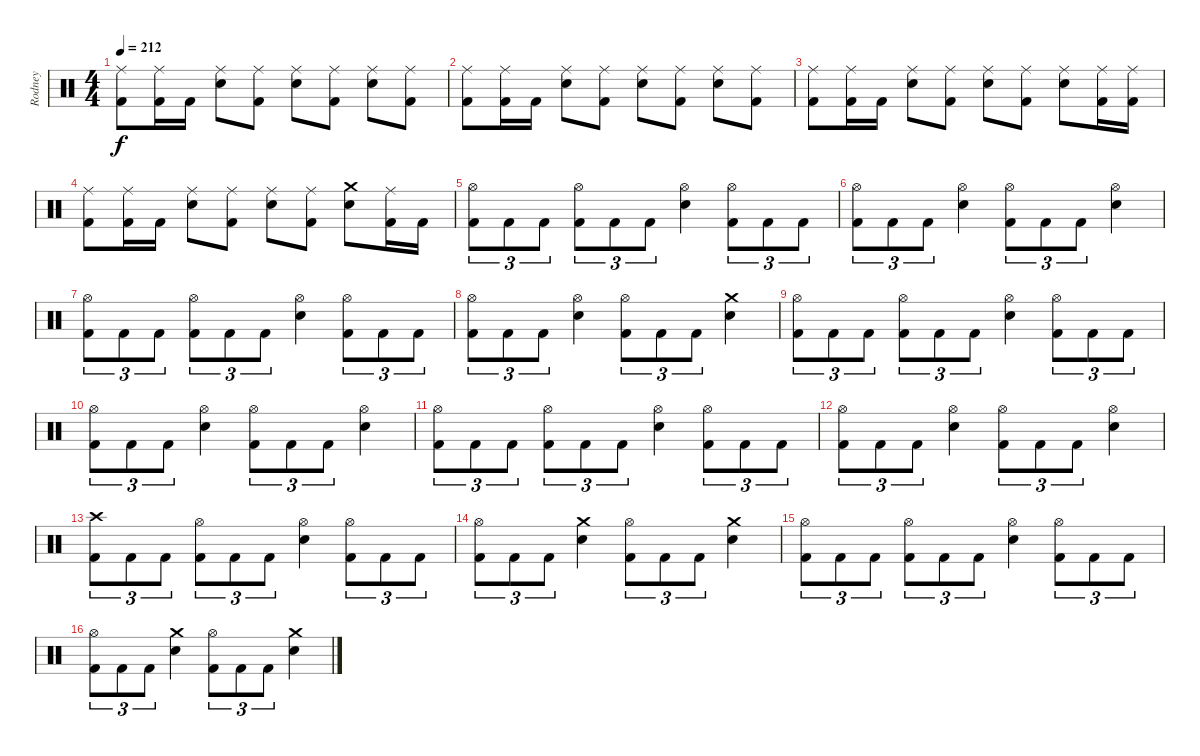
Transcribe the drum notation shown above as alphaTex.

\track ("Rodney" "Rodney") {instrument percussion}
\staff {score}
\articulation defaults
\ts (4 4)
\tempo 212
\clef neutral
\ks c
("Ride (middle)" "Kick (hit) 2").8{dy f} ("Ride (middle)" "Kick (hit) 2").16 "Kick (hit) 2".16 ("Ride (middle)" "Snare (hit) 2").8 ("Ride (middle)" "Kick (hit) 2").8 ("Ride (middle)" "Snare (hit) 2").8 ("Ride (middle)" "Kick (hit) 2").8 ("Ride (middle)" "Snare (hit) 2").8 ("Ride (middle)" "Kick (hit) 2").8 |
("Ride (middle)" "Kick (hit) 2").8 ("Ride (middle)" "Kick (hit) 2").16 "Kick (hit) 2".16 ("Ride (middle)" "Snare (hit) 2").8 ("Ride (middle)" "Kick (hit) 2").8 ("Ride (middle)" "Snare (hit) 2").8 ("Ride (middle)" "Kick (hit) 2").8 ("Ride (middle)" "Snare (hit) 2").8 ("Ride (middle)" "Kick (hit) 2").8 |
("Ride (middle)" "Kick (hit) 2").8 ("Ride (middle)" "Kick (hit) 2").16 "Kick (hit) 2".16 ("Ride (middle)" "Snare (hit) 2").8 ("Ride (middle)" "Kick (hit) 2").8 ("Ride (middle)" "Snare (hit) 2").8 ("Ride (middle)" "Kick (hit) 2").8 ("Ride (middle)" "Snare (hit) 2").8 ("Ride (middle)" "Kick (hit) 2").16 ("Ride (middle)" "Kick (hit) 2").16 |
("Ride (middle)" "Kick (hit) 2").8 ("Ride (middle)" "Kick (hit) 2").16 "Kick (hit) 2".16 ("Ride (middle)" "Snare (hit) 2").8 ("Ride (middle)" "Kick (hit) 2").8 ("Ride (middle)" "Snare (hit) 2").8 ("Ride (middle)" "Kick (hit) 2").8 ("Crash medium (hit)" "Snare (hit) 2").8 ("Ride (middle)" "Kick (hit) 2").16 "Kick (hit) 2".16 |
("Hi-Hat (open)" "Kick (hit) 2").8{tu (3 2)} "Kick (hit) 2".8{tu (3 2)} "Kick (hit) 2".8{tu (3 2)} ("Hi-Hat (open)" "Kick (hit) 2").8{tu (3 2)} "Kick (hit) 2".8{tu (3 2)} "Kick (hit) 2".8{tu (3 2)} ("Hi-Hat (open)" "Snare (hit) 2").4 ("Hi-Hat (open)" "Kick (hit) 2").8{tu (3 2)} "Kick (hit) 2".8{tu (3 2)} "Kick (hit) 2".8{tu (3 2)} |
("Hi-Hat (open)" "Kick (hit) 2").8{tu (3 2)} "Kick (hit) 2".8{tu (3 2)} "Kick (hit) 2".8{tu (3 2)} ("Hi-Hat (open)" "Snare (hit) 2").4 ("Hi-Hat (open)" "Kick (hit) 2").8{tu (3 2)} "Kick (hit) 2".8{tu (3 2)} "Kick (hit) 2".8{tu (3 2)} ("Hi-Hat (open)" "Snare (hit) 2").4 |
("Hi-Hat (open)" "Kick (hit) 2").8{tu (3 2)} "Kick (hit) 2".8{tu (3 2)} "Kick (hit) 2".8{tu (3 2)} ("Hi-Hat (open)" "Kick (hit) 2").8{tu (3 2)} "Kick (hit) 2".8{tu (3 2)} "Kick (hit) 2".8{tu (3 2)} ("Hi-Hat (open)" "Snare (hit) 2").4 ("Hi-Hat (open)" "Kick (hit) 2").8{tu (3 2)} "Kick (hit) 2".8{tu (3 2)} "Kick (hit) 2".8{tu (3 2)} |
("Hi-Hat (open)" "Kick (hit) 2").8{tu (3 2)} "Kick (hit) 2".8{tu (3 2)} "Kick (hit) 2".8{tu (3 2)} ("Hi-Hat (open)" "Snare (hit) 2").4 ("Hi-Hat (open)" "Kick (hit) 2").8{tu (3 2)} "Kick (hit) 2".8{tu (3 2)} "Kick (hit) 2".8{tu (3 2)} ("Crash medium (hit)" "Snare (hit) 2").4 |
("Hi-Hat (open)" "Kick (hit) 2").8{tu (3 2)} "Kick (hit) 2".8{tu (3 2)} "Kick (hit) 2".8{tu (3 2)} ("Hi-Hat (open)" "Kick (hit) 2").8{tu (3 2)} "Kick (hit) 2".8{tu (3 2)} "Kick (hit) 2".8{tu (3 2)} ("Hi-Hat (open)" "Snare (hit) 2").4 ("Hi-Hat (open)" "Kick (hit) 2").8{tu (3 2)} "Kick (hit) 2".8{tu (3 2)} "Kick (hit) 2".8{tu (3 2)} |
("Hi-Hat (open)" "Kick (hit) 2").8{tu (3 2)} "Kick (hit) 2".8{tu (3 2)} "Kick (hit) 2".8{tu (3 2)} ("Hi-Hat (open)" "Snare (hit) 2").4 ("Hi-Hat (open)" "Kick (hit) 2").8{tu (3 2)} "Kick (hit) 2".8{tu (3 2)} "Kick (hit) 2".8{tu (3 2)} ("Hi-Hat (open)" "Snare (hit) 2").4 |
("Hi-Hat (open)" "Kick (hit) 2").8{tu (3 2)} "Kick (hit) 2".8{tu (3 2)} "Kick (hit) 2".8{tu (3 2)} ("Hi-Hat (open)" "Kick (hit) 2").8{tu (3 2)} "Kick (hit) 2".8{tu (3 2)} "Kick (hit) 2".8{tu (3 2)} ("Hi-Hat (open)" "Snare (hit) 2").4 ("Hi-Hat (open)" "Kick (hit) 2").8{tu (3 2)} "Kick (hit) 2".8{tu (3 2)} "Kick (hit) 2".8{tu (3 2)} |
("Hi-Hat (open)" "Kick (hit) 2").8{tu (3 2)} "Kick (hit) 2".8{tu (3 2)} "Kick (hit) 2".8{tu (3 2)} ("Hi-Hat (open)" "Snare (hit) 2").4 ("Hi-Hat (open)" "Kick (hit) 2").8{tu (3 2)} "Kick (hit) 2".8{tu (3 2)} "Kick (hit) 2".8{tu (3 2)} ("Hi-Hat (open)" "Snare (hit) 2").4 |
("Crash high (hit)" "Kick (hit) 2").8{tu (3 2)} "Kick (hit) 2".8{tu (3 2)} "Kick (hit) 2".8{tu (3 2)} ("Hi-Hat (open)" "Kick (hit) 2").8{tu (3 2)} "Kick (hit) 2".8{tu (3 2)} "Kick (hit) 2".8{tu (3 2)} ("Hi-Hat (open)" "Snare (hit) 2").4 ("Hi-Hat (open)" "Kick (hit) 2").8{tu (3 2)} "Kick (hit) 2".8{tu (3 2)} "Kick (hit) 2".8{tu (3 2)} |
("Hi-Hat (open)" "Kick (hit) 2").8{tu (3 2)} "Kick (hit) 2".8{tu (3 2)} "Kick (hit) 2".8{tu (3 2)} ("Crash medium (hit)" "Snare (hit) 2").4 ("Hi-Hat (open)" "Kick (hit) 2").8{tu (3 2)} "Kick (hit) 2".8{tu (3 2)} "Kick (hit) 2".8{tu (3 2)} ("Crash medium (hit)" "Snare (hit) 2").4 |
("Hi-Hat (open)" "Kick (hit) 2").8{tu (3 2)} "Kick (hit) 2".8{tu (3 2)} "Kick (hit) 2".8{tu (3 2)} ("Hi-Hat (open)" "Kick (hit) 2").8{tu (3 2)} "Kick (hit) 2".8{tu (3 2)} "Kick (hit) 2".8{tu (3 2)} ("Hi-Hat (open)" "Snare (hit) 2").4 ("Hi-Hat (open)" "Kick (hit) 2").8{tu (3 2)} "Kick (hit) 2".8{tu (3 2)} "Kick (hit) 2".8{tu (3 2)} |
("Hi-Hat (open)" "Kick (hit) 2").8{tu (3 2)} "Kick (hit) 2".8{tu (3 2)} "Kick (hit) 2".8{tu (3 2)} ("Crash medium (hit)" "Snare (hit) 2").4 ("Hi-Hat (open)" "Kick (hit) 2").8{tu (3 2)} "Kick (hit) 2".8{tu (3 2)} "Kick (hit) 2".8{tu (3 2)} ("Crash medium (hit)" "Snare (hit) 2").4
